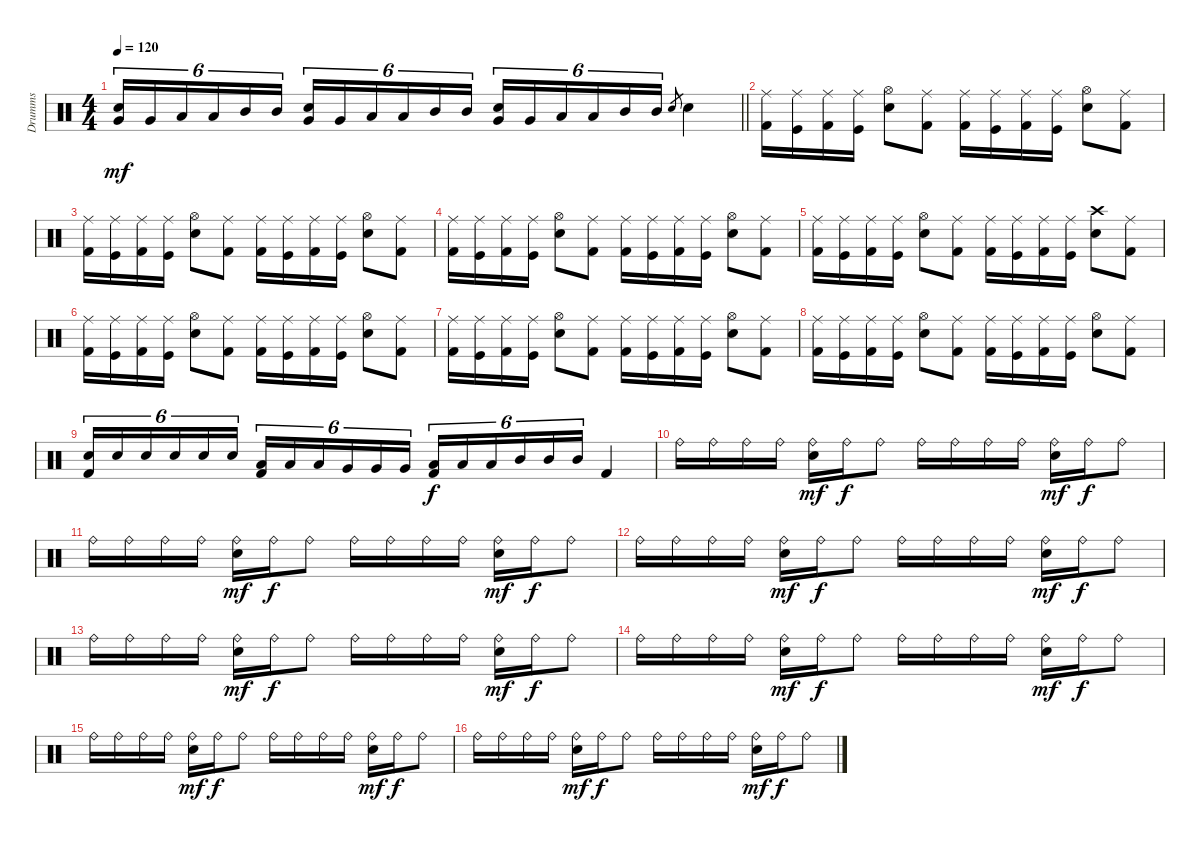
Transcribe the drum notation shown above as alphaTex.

\track ("Drumms" "Drumms") {instrument percussion}
\staff {score}
\articulation defaults
\ts (4 4)
\tempo 120
\clef neutral
\barLineRight lightlight
\ks c
("Very Low Tom (hit)" "Electric Snare (hit)").16{tu (6 4) dy mf} "Very Low Tom (hit)".16{tu (6 4)} "Low Tom (hit)".16{tu (6 4)} "Low Tom (hit)".16{tu (6 4)} "Mid Tom (hit)".16{tu (6 4)} "Mid Tom (hit)".16{tu (6 4)} ("Very Low Tom (hit)" "Electric Snare (hit)").16{tu (6 4)} "Very Low Tom (hit)".16{tu (6 4)} "Low Tom (hit)".16{tu (6 4)} "Low Tom (hit)".16{tu (6 4)} "Mid Tom (hit)".16{tu (6 4)} "Mid Tom (hit)".16{tu (6 4)} ("Very Low Tom (hit)" "Electric Snare (hit)").16{tu (6 4)} "Very Low Tom (hit)".16{tu (6 4)} "Low Tom (hit)".16{tu (6 4)} "Low Tom (hit)".16{tu (6 4)} "Mid Tom (hit)".16{tu (6 4)} "Mid Tom (hit)".16{tu (6 4)} "Electric Snare (hit)".8{gr} "Electric Snare (hit)".4 |
\section ("" "")
("Ride (middle)" "Kick (hit) 2").16 ("Ride (middle)" "Kick (hit)").16 ("Ride (middle)" "Kick (hit) 2").16 ("Ride (middle)" "Kick (hit)").16 ("Hi-Hat (open)" "Electric Snare (hit)").8 ("Ride (middle)" "Kick (hit) 2").8 ("Ride (middle)" "Kick (hit) 2").16 ("Ride (middle)" "Kick (hit)").16 ("Ride (middle)" "Kick (hit) 2").16 ("Ride (middle)" "Kick (hit)").16 ("Hi-Hat (open)" "Electric Snare (hit)").8 ("Ride (middle)" "Kick (hit) 2").8 |
("Ride (middle)" "Kick (hit) 2").16 ("Ride (middle)" "Kick (hit)").16 ("Ride (middle)" "Kick (hit) 2").16 ("Ride (middle)" "Kick (hit)").16 ("Hi-Hat (open)" "Electric Snare (hit)").8 ("Ride (middle)" "Kick (hit) 2").8 ("Ride (middle)" "Kick (hit) 2").16 ("Ride (middle)" "Kick (hit)").16 ("Ride (middle)" "Kick (hit) 2").16 ("Ride (middle)" "Kick (hit)").16 ("Hi-Hat (open)" "Electric Snare (hit)").8 ("Ride (middle)" "Kick (hit) 2").8 |
("Ride (middle)" "Kick (hit) 2").16 ("Ride (middle)" "Kick (hit)").16 ("Ride (middle)" "Kick (hit) 2").16 ("Ride (middle)" "Kick (hit)").16 ("Hi-Hat (open)" "Electric Snare (hit)").8 ("Ride (middle)" "Kick (hit) 2").8 ("Ride (middle)" "Kick (hit) 2").16 ("Ride (middle)" "Kick (hit)").16 ("Ride (middle)" "Kick (hit) 2").16 ("Ride (middle)" "Kick (hit)").16 ("Hi-Hat (open)" "Electric Snare (hit)").8 ("Ride (middle)" "Kick (hit) 2").8 |
("Ride (middle)" "Kick (hit) 2").16 ("Ride (middle)" "Kick (hit)").16 ("Ride (middle)" "Kick (hit) 2").16 ("Ride (middle)" "Kick (hit)").16 ("Hi-Hat (open)" "Electric Snare (hit)").8 ("Ride (middle)" "Kick (hit) 2").8 ("Ride (middle)" "Kick (hit) 2").16 ("Ride (middle)" "Kick (hit)").16 ("Ride (middle)" "Kick (hit) 2").16 ("Ride (middle)" "Kick (hit)").16 ("Crash high (hit)" "Electric Snare (hit)").8 ("Ride (middle)" "Kick (hit) 2").8 |
("Ride (middle)" "Kick (hit) 2").16 ("Ride (middle)" "Kick (hit)").16 ("Ride (middle)" "Kick (hit) 2").16 ("Ride (middle)" "Kick (hit)").16 ("Hi-Hat (open)" "Electric Snare (hit)").8 ("Ride (middle)" "Kick (hit) 2").8 ("Ride (middle)" "Kick (hit) 2").16 ("Ride (middle)" "Kick (hit)").16 ("Ride (middle)" "Kick (hit) 2").16 ("Ride (middle)" "Kick (hit)").16 ("Hi-Hat (open)" "Electric Snare (hit)").8 ("Ride (middle)" "Kick (hit) 2").8 |
("Ride (middle)" "Kick (hit) 2").16 ("Ride (middle)" "Kick (hit)").16 ("Ride (middle)" "Kick (hit) 2").16 ("Ride (middle)" "Kick (hit)").16 ("Hi-Hat (open)" "Electric Snare (hit)").8 ("Ride (middle)" "Kick (hit) 2").8 ("Ride (middle)" "Kick (hit) 2").16 ("Ride (middle)" "Kick (hit)").16 ("Ride (middle)" "Kick (hit) 2").16 ("Ride (middle)" "Kick (hit)").16 ("Hi-Hat (open)" "Electric Snare (hit)").8 ("Ride (middle)" "Kick (hit) 2").8 |
("Ride (middle)" "Kick (hit) 2").16 ("Ride (middle)" "Kick (hit)").16 ("Ride (middle)" "Kick (hit) 2").16 ("Ride (middle)" "Kick (hit)").16 ("Hi-Hat (open)" "Electric Snare (hit)").8 ("Ride (middle)" "Kick (hit) 2").8 ("Ride (middle)" "Kick (hit) 2").16 ("Ride (middle)" "Kick (hit)").16 ("Ride (middle)" "Kick (hit) 2").16 ("Ride (middle)" "Kick (hit)").16 ("Hi-Hat (open)" "Electric Snare (hit)").8 ("Ride (middle)" "Kick (hit) 2").8 |
("Electric Snare (hit)" "Kick (hit) 2").16{tu (6 4)} "Electric Snare (hit)".16{tu (6 4)} "Electric Snare (hit)".16{tu (6 4)} "Electric Snare (hit)".16{tu (6 4)} "Electric Snare (hit)".16{tu (6 4)} "Electric Snare (hit)".16{tu (6 4)} ("Low Floor Tom (hit)" "Kick (hit) 2").16{tu (6 4)} "Low Floor Tom (hit)".16{tu (6 4)} "Low Floor Tom (hit)".16{tu (6 4)} "Very Low Tom (hit)".16{tu (6 4)} "Very Low Tom (hit)".16{tu (6 4)} "Very Low Tom (hit)".16{tu (6 4)} ("Low Tom (hit)" "Kick (hit) 2").16{tu (6 4) dy f} "Low Tom (hit)".16{tu (6 4)} "Low Tom (hit)".16{tu (6 4)} "Mid Tom (hit)".16{tu (6 4)} "Mid Tom (hit)".16{tu (6 4)} "Mid Tom (hit)".16{tu (6 4)} "Kick (hit) 2".4 |
"Ride (bell)".16 "Ride (bell)".16 "Ride (bell)".16 "Ride (bell)".16 ("Ride (bell)" "Electric Snare (hit)").16{dy mf} "Ride (bell)".16{dy f} "Ride (bell)".8 "Ride (bell)".16 "Ride (bell)".16 "Ride (bell)".16 "Ride (bell)".16 ("Ride (bell)" "Electric Snare (hit)").16{dy mf} "Ride (bell)".16{dy f} "Ride (bell)".8 |
"Ride (bell)".16 "Ride (bell)".16 "Ride (bell)".16 "Ride (bell)".16 ("Ride (bell)" "Electric Snare (hit)").16{dy mf} "Ride (bell)".16{dy f} "Ride (bell)".8 "Ride (bell)".16 "Ride (bell)".16 "Ride (bell)".16 "Ride (bell)".16 ("Ride (bell)" "Electric Snare (hit)").16{dy mf} "Ride (bell)".16{dy f} "Ride (bell)".8 |
"Ride (bell)".16 "Ride (bell)".16 "Ride (bell)".16 "Ride (bell)".16 ("Ride (bell)" "Electric Snare (hit)").16{dy mf} "Ride (bell)".16{dy f} "Ride (bell)".8 "Ride (bell)".16 "Ride (bell)".16 "Ride (bell)".16 "Ride (bell)".16 ("Ride (bell)" "Electric Snare (hit)").16{dy mf} "Ride (bell)".16{dy f} "Ride (bell)".8 |
"Ride (bell)".16 "Ride (bell)".16 "Ride (bell)".16 "Ride (bell)".16 ("Ride (bell)" "Electric Snare (hit)").16{dy mf} "Ride (bell)".16{dy f} "Ride (bell)".8 "Ride (bell)".16 "Ride (bell)".16 "Ride (bell)".16 "Ride (bell)".16 ("Ride (bell)" "Electric Snare (hit)").16{dy mf} "Ride (bell)".16{dy f} "Ride (bell)".8 |
"Ride (bell)".16 "Ride (bell)".16 "Ride (bell)".16 "Ride (bell)".16 ("Ride (bell)" "Electric Snare (hit)").16{dy mf} "Ride (bell)".16{dy f} "Ride (bell)".8 "Ride (bell)".16 "Ride (bell)".16 "Ride (bell)".16 "Ride (bell)".16 ("Ride (bell)" "Electric Snare (hit)").16{dy mf} "Ride (bell)".16{dy f} "Ride (bell)".8 |
"Ride (bell)".16 "Ride (bell)".16 "Ride (bell)".16 "Ride (bell)".16 ("Ride (bell)" "Electric Snare (hit)").16{dy mf} "Ride (bell)".16{dy f} "Ride (bell)".8 "Ride (bell)".16 "Ride (bell)".16 "Ride (bell)".16 "Ride (bell)".16 ("Ride (bell)" "Electric Snare (hit)").16{dy mf} "Ride (bell)".16{dy f} "Ride (bell)".8 |
"Ride (bell)".16 "Ride (bell)".16 "Ride (bell)".16 "Ride (bell)".16 ("Ride (bell)" "Electric Snare (hit)").16{dy mf} "Ride (bell)".16{dy f} "Ride (bell)".8 "Ride (bell)".16 "Ride (bell)".16 "Ride (bell)".16 "Ride (bell)".16 ("Ride (bell)" "Electric Snare (hit)").16{dy mf} "Ride (bell)".16{dy f} "Ride (bell)".8
